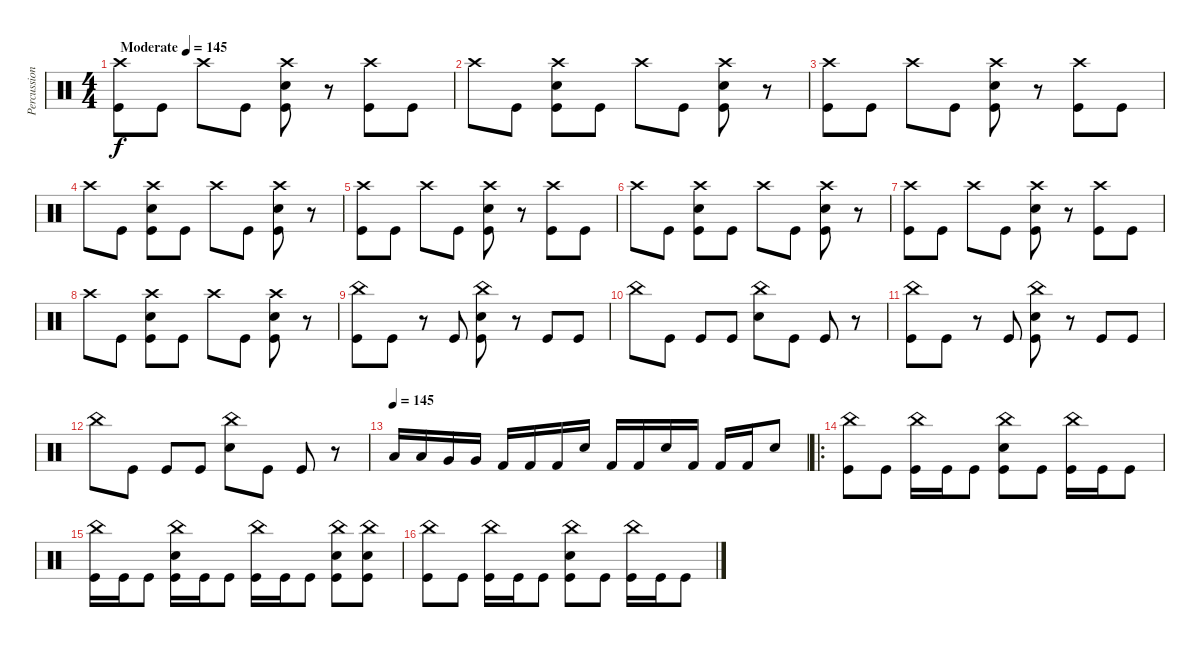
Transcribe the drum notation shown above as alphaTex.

\track ("Percussion" "Percussion") {instrument percussion}
\staff {score}
\articulation defaults
\ts (4 4)
\tempo (145 "Moderate")
\clef neutral
\ks c
("Crash high (hit)" "Kick (hit)").8{dy f} "Kick (hit)".8 "Crash high (hit)".8 "Kick (hit)".8 ("Crash high (hit)" "Kick (hit)" "Electric Snare (hit)").8 r.8 ("Crash high (hit)" "Kick (hit)").8 "Kick (hit)".8 |
"Crash high (hit)".8 "Kick (hit)".8 ("Crash high (hit)" "Kick (hit)" "Electric Snare (hit)").8 "Kick (hit)".8 "Crash high (hit)".8 "Kick (hit)".8 ("Crash high (hit)" "Kick (hit)" "Electric Snare (hit)").8 r.8 |
("Crash high (hit)" "Kick (hit)").8 "Kick (hit)".8 "Crash high (hit)".8 "Kick (hit)".8 ("Crash high (hit)" "Kick (hit)" "Electric Snare (hit)").8 r.8 ("Crash high (hit)" "Kick (hit)").8 "Kick (hit)".8 |
"Crash high (hit)".8 "Kick (hit)".8 ("Crash high (hit)" "Kick (hit)" "Electric Snare (hit)").8 "Kick (hit)".8 "Crash high (hit)".8 "Kick (hit)".8 ("Crash high (hit)" "Kick (hit)" "Electric Snare (hit)").8 r.8 |
("Crash high (hit)" "Kick (hit)").8 "Kick (hit)".8 "Crash high (hit)".8 "Kick (hit)".8 ("Crash high (hit)" "Kick (hit)" "Electric Snare (hit)").8 r.8 ("Crash high (hit)" "Kick (hit)").8 "Kick (hit)".8 |
"Crash high (hit)".8 "Kick (hit)".8 ("Crash high (hit)" "Kick (hit)" "Electric Snare (hit)").8 "Kick (hit)".8 "Crash high (hit)".8 "Kick (hit)".8 ("Crash high (hit)" "Kick (hit)" "Electric Snare (hit)").8 r.8 |
("Crash high (hit)" "Kick (hit)").8 "Kick (hit)".8 "Crash high (hit)".8 "Kick (hit)".8 ("Crash high (hit)" "Kick (hit)" "Electric Snare (hit)").8 r.8 ("Crash high (hit)" "Kick (hit)").8 "Kick (hit)".8 |
"Crash high (hit)".8 "Kick (hit)".8 ("Crash high (hit)" "Kick (hit)" "Electric Snare (hit)").8 "Kick (hit)".8 "Crash high (hit)".8 "Kick (hit)".8 ("Crash high (hit)" "Kick (hit)" "Electric Snare (hit)").8 r.8 |
("China (hit)" "Kick (hit)").8 "Kick (hit)".8 r.8 "Kick (hit)".8 ("China (hit)" "Kick (hit)" "Electric Snare (hit)").8 r.8 "Kick (hit)".8 "Kick (hit)".8 |
"China (hit)".8 "Kick (hit)".8 "Kick (hit)".8 "Kick (hit)".8 ("China (hit)" "Electric Snare (hit)").8 "Kick (hit)".8 "Kick (hit)".8 r.8 |
("China (hit)" "Kick (hit)").8 "Kick (hit)".8 r.8 "Kick (hit)".8 ("China (hit)" "Kick (hit)" "Electric Snare (hit)").8 r.8 "Kick (hit)".8 "Kick (hit)".8 |
"China (hit)".8 "Kick (hit)".8 "Kick (hit)".8 "Kick (hit)".8 ("China (hit)" "Electric Snare (hit)").8 "Kick (hit)".8 "Kick (hit)".8 r.8 |
\tempo (145)
"Low Tom (hit)".16 "Low Tom (hit)".16 "Very Low Tom (hit)".16 "Very Low Tom (hit)".16 "Kick (hit) 2".16 "Kick (hit) 2".16 "Kick (hit) 2".16 "Electric Snare (hit)".16 "Kick (hit) 2".16 "Kick (hit) 2".16 "Electric Snare (hit)".16 "Kick (hit) 2".16 "Kick (hit) 2".16 "Kick (hit) 2".16 "Electric Snare (hit)".8 |
\ro
("China (hit)" "Kick (hit)").8 "Kick (hit)".8 ("China (hit)" "Kick (hit)").16 "Kick (hit)".16 "Kick (hit)".8 ("China (hit)" "Electric Snare (hit)" "Kick (hit)").8 "Kick (hit)".8 ("China (hit)" "Kick (hit)").16 "Kick (hit)".16 "Kick (hit)".8 |
("China (hit)" "Kick (hit)").16 "Kick (hit)".16 "Kick (hit)".8 ("China (hit)" "Electric Snare (hit)" "Kick (hit)").16 "Kick (hit)".16 "Kick (hit)".8 ("China (hit)" "Kick (hit)").16 "Kick (hit)".16 "Kick (hit)".8 ("China (hit)" "Electric Snare (hit)" "Kick (hit)").8 ("China (hit)" "Electric Snare (hit)" "Kick (hit)").8 |
("China (hit)" "Kick (hit)").8 "Kick (hit)".8 ("China (hit)" "Kick (hit)").16 "Kick (hit)".16 "Kick (hit)".8 ("China (hit)" "Electric Snare (hit)" "Kick (hit)").8 "Kick (hit)".8 ("China (hit)" "Kick (hit)").16 "Kick (hit)".16 "Kick (hit)".8
